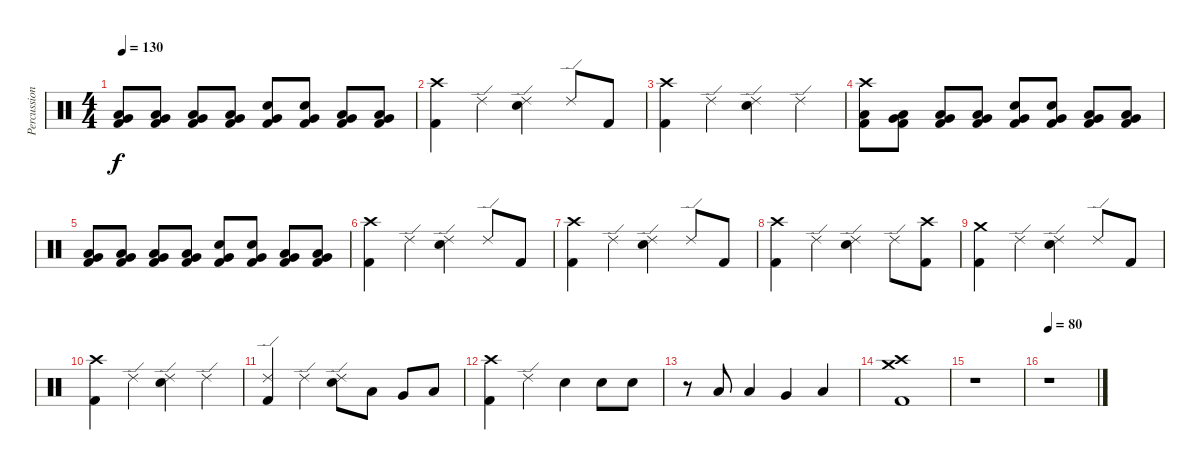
\track ("Percussion" "Percussion") {instrument percussion}
\staff {score}
\articulation defaults
\ts (4 4)
\tempo 130
\clef neutral
\ks c
("Low Floor Tom (hit)" "Very Low Tom (hit)" "Kick (hit) 2").8{dy f} ("Low Floor Tom (hit)" "Very Low Tom (hit)" "Kick (hit) 2").8 ("Low Floor Tom (hit)" "Very Low Tom (hit)" "Kick (hit) 2").8 ("Low Floor Tom (hit)" "Very Low Tom (hit)" "Kick (hit) 2").8 ("Electric Snare (hit)" "Very Low Tom (hit)" "Kick (hit) 2").8 ("Electric Snare (hit)" "Very Low Tom (hit)" "Kick (hit) 2").8 ("Low Floor Tom (hit)" "Very Low Tom (hit)" "Kick (hit) 2").8 ("Low Floor Tom (hit)" "Very Low Tom (hit)" "Kick (hit) 2").8 |
("Crash high (hit)" "Kick (hit) 2").4 "Ride (edge) 2".4 ("Ride (edge) 2" "Electric Snare (hit)").4 "Ride (edge) 2".8 "Kick (hit) 2".8 |
("Crash high (hit)" "Kick (hit) 2").4 "Ride (edge) 2".4 ("Ride (edge) 2" "Electric Snare (hit)").4 "Ride (edge) 2".4 |
("Crash high (hit)" "Low Floor Tom (hit)" "Kick (hit) 2").8 ("Low Floor Tom (hit)" "Very Low Tom (hit)" "Kick (hit) 2").8 ("Low Floor Tom (hit)" "Very Low Tom (hit)" "Kick (hit) 2").8 ("Low Floor Tom (hit)" "Very Low Tom (hit)" "Kick (hit) 2").8 ("Electric Snare (hit)" "Very Low Tom (hit)" "Kick (hit) 2").8 ("Electric Snare (hit)" "Very Low Tom (hit)" "Kick (hit) 2").8 ("Low Floor Tom (hit)" "Very Low Tom (hit)" "Kick (hit) 2").8 ("Low Floor Tom (hit)" "Very Low Tom (hit)" "Kick (hit) 2").8 |
("Low Floor Tom (hit)" "Very Low Tom (hit)" "Kick (hit) 2").8 ("Low Floor Tom (hit)" "Very Low Tom (hit)" "Kick (hit) 2").8 ("Low Floor Tom (hit)" "Very Low Tom (hit)" "Kick (hit) 2").8 ("Low Floor Tom (hit)" "Very Low Tom (hit)" "Kick (hit) 2").8 ("Electric Snare (hit)" "Very Low Tom (hit)" "Kick (hit) 2").8 ("Electric Snare (hit)" "Very Low Tom (hit)" "Kick (hit) 2").8 ("Low Floor Tom (hit)" "Very Low Tom (hit)" "Kick (hit) 2").8 ("Low Floor Tom (hit)" "Very Low Tom (hit)" "Kick (hit) 2").8 |
("Crash high (hit)" "Kick (hit) 2").4 "Ride (edge) 2".4 ("Ride (edge) 2" "Electric Snare (hit)").4 "Ride (edge) 2".8 "Kick (hit) 2".8 |
("Crash high (hit)" "Kick (hit) 2").4 "Ride (edge) 2".4 ("Ride (edge) 2" "Electric Snare (hit)").4 "Ride (edge) 2".8 "Kick (hit) 2".8 |
("Crash high (hit)" "Kick (hit) 2").4 "Ride (edge) 2".4 ("Ride (edge) 2" "Electric Snare (hit)").4 "Ride (edge) 2".8 ("Crash high (hit)" "Kick (hit) 2").8 |
("Crash medium (hit)" "Kick (hit) 2").4 "Ride (edge) 2".4 ("Ride (edge) 2" "Electric Snare (hit)").4 "Ride (edge) 2".8 "Kick (hit) 2".8 |
("Crash high (hit)" "Kick (hit) 2").4 "Ride (edge) 2".4 ("Ride (edge) 2" "Electric Snare (hit)").4 "Ride (edge) 2".4 |
("Ride (edge) 2" "Kick (hit) 2").4 "Ride (edge) 2".4 ("Ride (edge) 2" "Electric Snare (hit)").8 "Low Tom (hit)".8 "Very Low Tom (hit)".8 "Low Floor Tom (hit)".8 |
("Crash high (hit)" "Kick (hit) 2").4 "Ride (edge) 2".4 "Electric Snare (hit)".4 "Electric Snare (hit)".8 "Electric Snare (hit)".8 |
r.8 "Low Tom (hit)".8 "Low Tom (hit)".4 "Very Low Tom (hit)".4 "Low Floor Tom (hit)".4 |
("Crash high (hit)" "Crash medium (hit)" "Kick (hit) 2").1 |
r.1 |
\tempo 80
r.1
